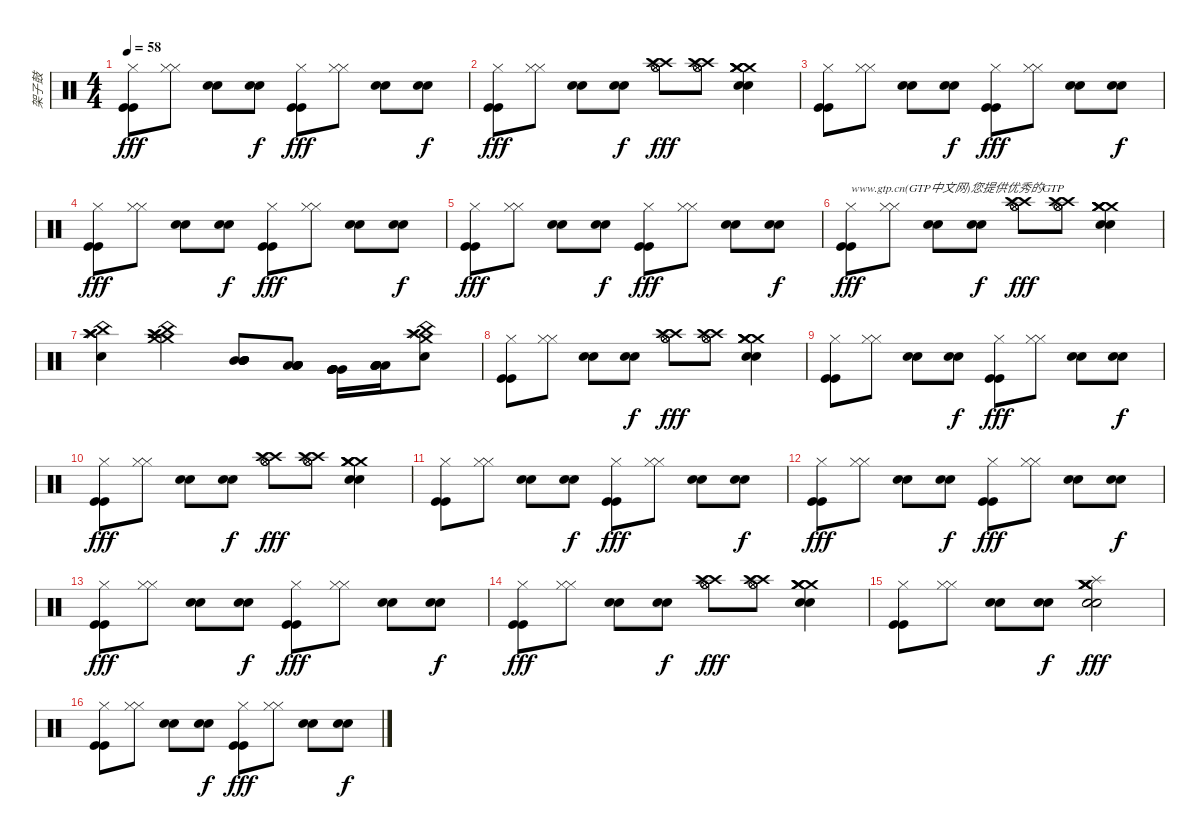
\track ("架子鼓" "架子鼓") {instrument percussion}
\staff {score}
\articulation defaults
\ts (4 4)
\tempo 58
\clef neutral
\ks c
("Kick (hit)" "Kick (hit)" "Hi-Hat (closed)").8{dy fff} ("Hi-Hat (closed)" "Hi-Hat (closed)").8 ("Snare (hit) 2" "Snare (hit) 2").8 ("Snare (hit) 2" "Snare (hit) 2").8{dy f} ("Kick (hit)" "Kick (hit)" "Hi-Hat (closed)").8{dy fff} ("Hi-Hat (closed)" "Hi-Hat (closed)").8 ("Snare (hit) 2" "Snare (hit) 2").8 ("Snare (hit) 2" "Snare (hit) 2").8{dy f} |
("Kick (hit)" "Kick (hit)" "Hi-Hat (closed)").8{dy fff} ("Hi-Hat (closed)" "Hi-Hat (closed)").8 ("Snare (hit) 2" "Snare (hit) 2").8 ("Snare (hit) 2" "Snare (hit) 2").8{dy f} ("Crash high (hit)" "Splash (hit)" "Hi-Hat (open)" "Hi-Hat (open)" "Hi-Hat (open)" "Crash high (hit)").8{dy fff} ("Crash high (hit)" "Splash (hit)" "Hi-Hat (open)" "Hi-Hat (open)" "Hi-Hat (open)" "Crash high (hit)").8 ("Crash medium (hit)" "Crash medium (hit)" "Snare (hit) 2" "Snare (hit) 2" "Crash medium (hit)" "Crash medium (hit)").4 |
("Kick (hit)" "Kick (hit)" "Hi-Hat (closed)").8 ("Hi-Hat (closed)" "Hi-Hat (closed)").8 ("Snare (hit) 2" "Snare (hit) 2").8 ("Snare (hit) 2" "Snare (hit) 2").8{dy f} ("Kick (hit)" "Kick (hit)" "Hi-Hat (closed)").8{dy fff} ("Hi-Hat (closed)" "Hi-Hat (closed)").8 ("Snare (hit) 2" "Snare (hit) 2").8 ("Snare (hit) 2" "Snare (hit) 2").8{dy f} |
("Kick (hit)" "Kick (hit)" "Hi-Hat (closed)").8{dy fff} ("Hi-Hat (closed)" "Hi-Hat (closed)").8 ("Snare (hit) 2" "Snare (hit) 2").8 ("Snare (hit) 2" "Snare (hit) 2").8{dy f} ("Kick (hit)" "Kick (hit)" "Hi-Hat (closed)").8{dy fff} ("Hi-Hat (closed)" "Hi-Hat (closed)").8 ("Snare (hit) 2" "Snare (hit) 2").8 ("Snare (hit) 2" "Snare (hit) 2").8{dy f} |
("Kick (hit)" "Kick (hit)" "Hi-Hat (closed)").8{dy fff} ("Hi-Hat (closed)" "Hi-Hat (closed)").8 ("Snare (hit) 2" "Snare (hit) 2").8 ("Snare (hit) 2" "Snare (hit) 2").8{dy f} ("Kick (hit)" "Kick (hit)" "Hi-Hat (closed)").8{dy fff} ("Hi-Hat (closed)" "Hi-Hat (closed)").8 ("Snare (hit) 2" "Snare (hit) 2").8 ("Snare (hit) 2" "Snare (hit) 2").8{dy f} |
("Kick (hit)" "Kick (hit)" "Hi-Hat (closed)").8{txt "www.gtp.cn(GTP中文网)您提供优秀的GTP" dy fff} ("Hi-Hat (closed)" "Hi-Hat (closed)").8 ("Snare (hit) 2" "Snare (hit) 2").8 ("Snare (hit) 2" "Snare (hit) 2").8{dy f} ("Crash high (hit)" "Splash (hit)" "Hi-Hat (open)" "Hi-Hat (open)" "Hi-Hat (open)" "Crash high (hit)").8{dy fff} ("Crash high (hit)" "Splash (hit)" "Hi-Hat (open)" "Hi-Hat (open)" "Hi-Hat (open)" "Crash high (hit)").8 ("Crash medium (hit)" "Crash medium (hit)" "Snare (hit) 2" "Snare (hit) 2" "Crash medium (hit)" "Crash medium (hit)").4 |
("Crash high (hit)" "Splash (hit)" "Crash high (hit)" "Snare (hit) 2" "China (hit)" "Splash (hit)").4 ("Crash high (hit)" "Splash (hit)" "China (hit)" "Splash (hit)" "Crash medium (hit)" "Crash medium (hit)").4 ("Mid Tom (hit)" "Mid Tom (hit)" "Mid Tom (hit)" "Mid Tom (hit)" "Mid Tom (hit)").8 ("Low Tom (hit)" "Low Tom (hit)" "Low Tom (hit)" "Low Tom (hit)" "Low Tom (hit)").8 ("Very Low Tom (hit)" "Very Low Tom (hit)" "Very Low Tom (hit)" "Very Low Tom (hit)" "Very Low Tom (hit)").16 ("Low Floor Tom (hit)" "Low Floor Tom (hit)" "Low Floor Tom (hit)" "Low Floor Tom (hit)" "Low Floor Tom (hit)").16 ("Snare (hit) 2" "Splash (hit)" "Splash (hit)" "Crash medium (hit)" "China (hit)" "Crash high (hit)").8 |
("Kick (hit)" "Kick (hit)" "Hi-Hat (closed)").8 ("Hi-Hat (closed)" "Hi-Hat (closed)").8 ("Snare (hit) 2" "Snare (hit) 2").8 ("Snare (hit) 2" "Snare (hit) 2").8{dy f} ("Crash high (hit)" "Splash (hit)" "Hi-Hat (open)" "Hi-Hat (open)" "Hi-Hat (open)" "Crash high (hit)").8{dy fff} ("Crash high (hit)" "Splash (hit)" "Hi-Hat (open)" "Hi-Hat (open)" "Hi-Hat (open)" "Crash high (hit)").8 ("Crash medium (hit)" "Crash medium (hit)" "Snare (hit) 2" "Snare (hit) 2" "Crash medium (hit)" "Crash medium (hit)").4 |
("Kick (hit)" "Kick (hit)" "Hi-Hat (closed)").8 ("Hi-Hat (closed)" "Hi-Hat (closed)").8 ("Snare (hit) 2" "Snare (hit) 2").8 ("Snare (hit) 2" "Snare (hit) 2").8{dy f} ("Kick (hit)" "Kick (hit)" "Hi-Hat (closed)").8{dy fff} ("Hi-Hat (closed)" "Hi-Hat (closed)").8 ("Snare (hit) 2" "Snare (hit) 2").8 ("Snare (hit) 2" "Snare (hit) 2").8{dy f} |
("Kick (hit)" "Kick (hit)" "Hi-Hat (closed)").8{dy fff} ("Hi-Hat (closed)" "Hi-Hat (closed)").8 ("Snare (hit) 2" "Snare (hit) 2").8 ("Snare (hit) 2" "Snare (hit) 2").8{dy f} ("Crash high (hit)" "Splash (hit)" "Hi-Hat (open)" "Hi-Hat (open)" "Hi-Hat (open)" "Crash high (hit)").8{dy fff} ("Crash high (hit)" "Splash (hit)" "Hi-Hat (open)" "Hi-Hat (open)" "Hi-Hat (open)" "Crash high (hit)").8 ("Crash medium (hit)" "Crash medium (hit)" "Snare (hit) 2" "Snare (hit) 2" "Crash medium (hit)" "Crash medium (hit)").4 |
("Kick (hit)" "Kick (hit)" "Hi-Hat (closed)").8 ("Hi-Hat (closed)" "Hi-Hat (closed)").8 ("Snare (hit) 2" "Snare (hit) 2").8 ("Snare (hit) 2" "Snare (hit) 2").8{dy f} ("Kick (hit)" "Kick (hit)" "Hi-Hat (closed)").8{dy fff} ("Hi-Hat (closed)" "Hi-Hat (closed)").8 ("Snare (hit) 2" "Snare (hit) 2").8 ("Snare (hit) 2" "Snare (hit) 2").8{dy f} |
("Kick (hit)" "Kick (hit)" "Hi-Hat (closed)").8{dy fff} ("Hi-Hat (closed)" "Hi-Hat (closed)").8 ("Snare (hit) 2" "Snare (hit) 2").8 ("Snare (hit) 2" "Snare (hit) 2").8{dy f} ("Kick (hit)" "Kick (hit)" "Hi-Hat (closed)").8{dy fff} ("Hi-Hat (closed)" "Hi-Hat (closed)").8 ("Snare (hit) 2" "Snare (hit) 2").8 ("Snare (hit) 2" "Snare (hit) 2").8{dy f} |
("Kick (hit)" "Kick (hit)" "Hi-Hat (closed)").8{dy fff} ("Hi-Hat (closed)" "Hi-Hat (closed)").8 ("Snare (hit) 2" "Snare (hit) 2").8 ("Snare (hit) 2" "Snare (hit) 2").8{dy f} ("Kick (hit)" "Kick (hit)" "Hi-Hat (closed)").8{dy fff} ("Hi-Hat (closed)" "Hi-Hat (closed)").8 ("Snare (hit) 2" "Snare (hit) 2").8 ("Snare (hit) 2" "Snare (hit) 2").8{dy f} |
("Kick (hit)" "Kick (hit)" "Hi-Hat (closed)").8{dy fff} ("Hi-Hat (closed)" "Hi-Hat (closed)").8 ("Snare (hit) 2" "Snare (hit) 2").8 ("Snare (hit) 2" "Snare (hit) 2").8{dy f} ("Crash high (hit)" "Splash (hit)" "Hi-Hat (open)" "Hi-Hat (open)" "Hi-Hat (open)" "Crash high (hit)").8{dy fff} ("Crash high (hit)" "Splash (hit)" "Hi-Hat (open)" "Hi-Hat (open)" "Hi-Hat (open)" "Crash high (hit)").8 ("Crash medium (hit)" "Crash medium (hit)" "Snare (hit) 2" "Snare (hit) 2" "Crash medium (hit)" "Crash medium (hit)").4 |
("Kick (hit)" "Kick (hit)" "Hi-Hat (closed)").8 ("Hi-Hat (closed)" "Hi-Hat (closed)").8 ("Snare (hit) 2" "Snare (hit) 2").8 ("Snare (hit) 2" "Snare (hit) 2").8{dy f} ("Crash medium (hit)" "Splash (hit)" "Snare (hit) 2" "Snare (hit) 2" "Crash medium (hit)" "Crash medium (hit)").2{dy fff} |
("Kick (hit)" "Kick (hit)" "Hi-Hat (closed)").8 ("Hi-Hat (closed)" "Hi-Hat (closed)").8 ("Snare (hit) 2" "Snare (hit) 2").8 ("Snare (hit) 2" "Snare (hit) 2").8{dy f} ("Kick (hit)" "Kick (hit)" "Hi-Hat (closed)").8{dy fff} ("Hi-Hat (closed)" "Hi-Hat (closed)").8 ("Snare (hit) 2" "Snare (hit) 2").8 ("Snare (hit) 2" "Snare (hit) 2").8{dy f}
